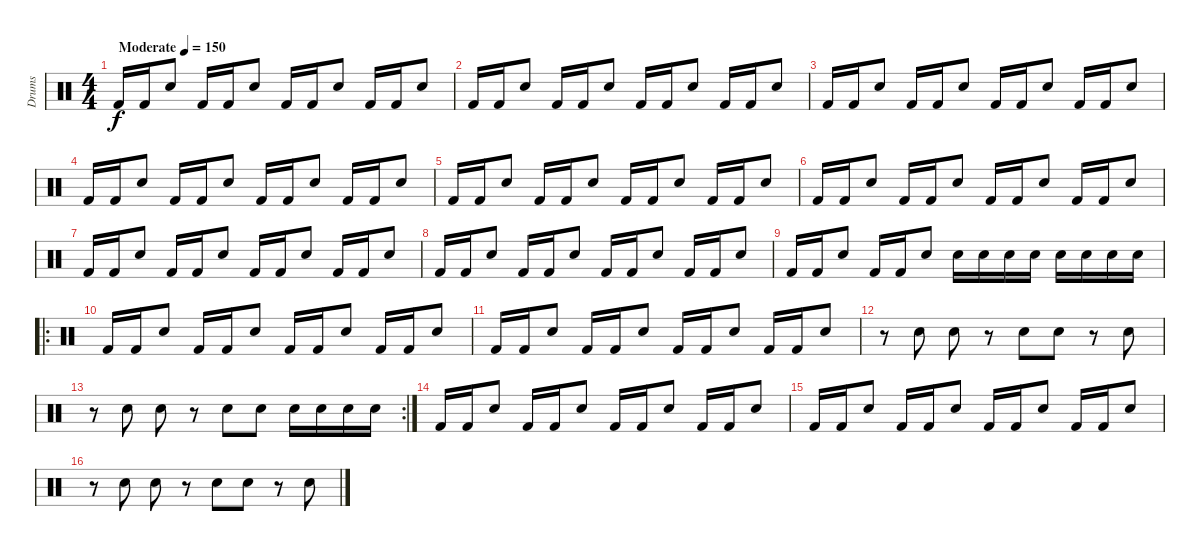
\track ("Drums" "Drums") {instrument percussion}
\staff {score}
\articulation defaults
\ts (4 4)
\tempo (150 "Moderate")
\clef neutral
\ks c "Kick (hit) 2".16{dy f} "Kick (hit) 2".16 "Snare (hit) 2".8 "Kick (hit) 2".16 "Kick (hit) 2".16 "Snare (hit) 2".8 "Kick (hit) 2".16 "Kick (hit) 2".16 "Snare (hit) 2".8 "Kick (hit) 2".16 "Kick (hit) 2".16 "Snare (hit) 2".8
|
"Kick (hit) 2".16 "Kick (hit) 2".16 "Snare (hit) 2".8 "Kick (hit) 2".16 "Kick (hit) 2".16 "Snare (hit) 2".8 "Kick (hit) 2".16 "Kick (hit) 2".16 "Snare (hit) 2".8 "Kick (hit) 2".16 "Kick (hit) 2".16 "Snare (hit) 2".8 |
"Kick (hit) 2".16 "Kick (hit) 2".16 "Snare (hit) 2".8 "Kick (hit) 2".16 "Kick (hit) 2".16 "Snare (hit) 2".8 "Kick (hit) 2".16 "Kick (hit) 2".16 "Snare (hit) 2".8 "Kick (hit) 2".16 "Kick (hit) 2".16 "Snare (hit) 2".8 |
"Kick (hit) 2".16 "Kick (hit) 2".16 "Snare (hit) 2".8 "Kick (hit) 2".16 "Kick (hit) 2".16 "Snare (hit) 2".8 "Kick (hit) 2".16 "Kick (hit) 2".16 "Snare (hit) 2".8 "Kick (hit) 2".16 "Kick (hit) 2".16 "Snare (hit) 2".8 |
"Kick (hit) 2".16 "Kick (hit) 2".16 "Snare (hit) 2".8 "Kick (hit) 2".16 "Kick (hit) 2".16 "Snare (hit) 2".8 "Kick (hit) 2".16 "Kick (hit) 2".16 "Snare (hit) 2".8 "Kick (hit) 2".16 "Kick (hit) 2".16 "Snare (hit) 2".8 |
"Kick (hit) 2".16 "Kick (hit) 2".16 "Snare (hit) 2".8 "Kick (hit) 2".16 "Kick (hit) 2".16 "Snare (hit) 2".8 "Kick (hit) 2".16 "Kick (hit) 2".16 "Snare (hit) 2".8 "Kick (hit) 2".16 "Kick (hit) 2".16 "Snare (hit) 2".8 |
"Kick (hit) 2".16 "Kick (hit) 2".16 "Snare (hit) 2".8 "Kick (hit) 2".16 "Kick (hit) 2".16 "Snare (hit) 2".8 "Kick (hit) 2".16 "Kick (hit) 2".16 "Snare (hit) 2".8 "Kick (hit) 2".16 "Kick (hit) 2".16 "Snare (hit) 2".8 |
"Kick (hit) 2".16 "Kick (hit) 2".16 "Snare (hit) 2".8 "Kick (hit) 2".16 "Kick (hit) 2".16 "Snare (hit) 2".8 "Kick (hit) 2".16 "Kick (hit) 2".16 "Snare (hit) 2".8 "Kick (hit) 2".16 "Kick (hit) 2".16 "Snare (hit) 2".8 |
"Kick (hit) 2".16 "Kick (hit) 2".16 "Snare (hit) 2".8 "Kick (hit) 2".16 "Kick (hit) 2".16 "Snare (hit) 2".8 "Snare (hit) 2".16 "Snare (hit) 2".16 "Snare (hit) 2".16 "Snare (hit) 2".16 "Snare (hit) 2".16 "Snare (hit) 2".16 "Snare (hit) 2".16 "Snare (hit) 2".16 |
\ro "Kick (hit) 2".16 "Kick (hit) 2".16 "Snare (hit) 2".8 "Kick (hit) 2".16 "Kick (hit) 2".16 "Snare (hit) 2".8 "Kick (hit) 2".16 "Kick (hit) 2".16 "Snare (hit) 2".8 "Kick (hit) 2".16 "Kick (hit) 2".16 "Snare (hit) 2".8
|
"Kick (hit) 2".16 "Kick (hit) 2".16 "Snare (hit) 2".8 "Kick (hit) 2".16 "Kick (hit) 2".16 "Snare (hit) 2".8 "Kick (hit) 2".16 "Kick (hit) 2".16 "Snare (hit) 2".8 "Kick (hit) 2".16 "Kick (hit) 2".16 "Snare (hit) 2".8 |
r.8 "Snare (hit) 2".8 "Snare (hit) 2".8 r.8 "Snare (hit) 2".8 "Snare (hit) 2".8 r.8 "Snare (hit) 2".8 |
\rc 2
r.8 "Snare (hit) 2".8 "Snare (hit) 2".8 r.8 "Snare (hit) 2".8 "Snare (hit) 2".8 "Snare (hit) 2".16 "Snare (hit) 2".16 "Snare (hit) 2".16 "Snare (hit) 2".16 |
"Kick (hit) 2".16 "Kick (hit) 2".16 "Snare (hit) 2".8 "Kick (hit) 2".16 "Kick (hit) 2".16 "Snare (hit) 2".8 "Kick (hit) 2".16 "Kick (hit) 2".16 "Snare (hit) 2".8 "Kick (hit) 2".16 "Kick (hit) 2".16 "Snare (hit) 2".8 |
"Kick (hit) 2".16 "Kick (hit) 2".16 "Snare (hit) 2".8 "Kick (hit) 2".16 "Kick (hit) 2".16 "Snare (hit) 2".8 "Kick (hit) 2".16 "Kick (hit) 2".16 "Snare (hit) 2".8 "Kick (hit) 2".16 "Kick (hit) 2".16 "Snare (hit) 2".8 |
r.8 "Snare (hit) 2".8 "Snare (hit) 2".8 r.8 "Snare (hit) 2".8 "Snare (hit) 2".8 r.8 "Snare (hit) 2".8
